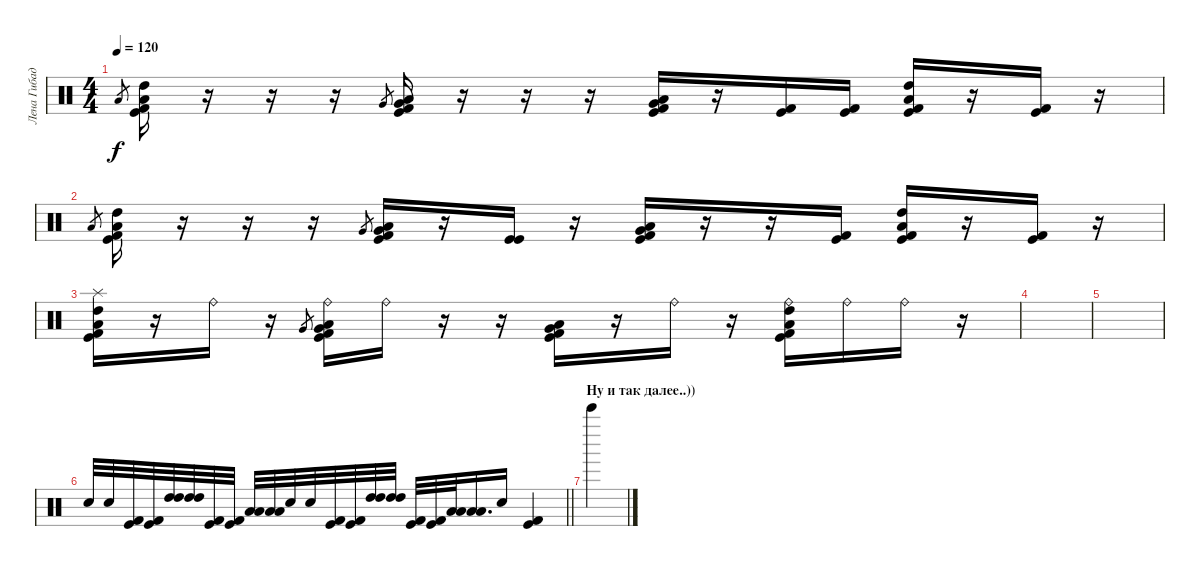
\track ("Лена Гибадулина" "Лена Гибад") {instrument percussion}
\staff {score}
\articulation defaults
\ts (4 4)
\tempo 120
\clef neutral
\ks c "Low Tom (hit)".8{gr dy f}
("Kick (hit)" "Kick (hit) 2" "High Tom (hit)" "Low Tom (hit)").16 r.16 r.16 r.16 "Very Low Tom (hit)".8{gr} ("Kick (hit)" "Kick (hit) 2" "Very Low Tom (hit)" "Low Tom (hit)").16 r.16 r.16 r.16 ("Kick (hit)" "Kick (hit) 2" "Low Floor Tom (hit)" "Very Low Tom (hit)").16 r.16 ("Kick (hit)" "Kick (hit) 2").16 ("Kick (hit)" "Kick (hit) 2").16 ("Kick (hit)" "Kick (hit) 2" "Low Tom (hit)" "High Tom (hit)").16 r.16 ("Kick (hit)" "Kick (hit) 2").16 r.16 |
"Low Tom (hit)".8{gr} ("Kick (hit)" "Kick (hit) 2" "High Tom (hit)" "Low Tom (hit)").16 r.16 r.16 r.16 "Very Low Tom (hit)".8{gr} ("Kick (hit)" "Kick (hit) 2" "Very Low Tom (hit)" "Low Tom (hit)").16 r.16 ("Kick (hit)" "Kick (hit)").16 r.16 ("Kick (hit)" "Kick (hit) 2" "Low Floor Tom (hit)" "Very Low Tom (hit)").16 r.16 r.16 ("Kick (hit) 2" "Kick (hit)").16 ("Kick (hit)" "Kick (hit) 2" "Low Tom (hit)" "High Tom (hit)").16 r.16 ("Kick (hit)" "Kick (hit) 2").16 r.16 |
("Splash (hit)" "Kick (hit)" "Kick (hit) 2" "High Tom (hit)" "Low Tom (hit)").16 r.16 "Ride (bell)".16 r.16 "Very Low Tom (hit)".8{gr} ("Ride (bell)" "Kick (hit)" "Kick (hit) 2" "Very Low Tom (hit)" "Low Tom (hit)").16 "Ride (bell)".16 r.16 r.16 ("Kick (hit)" "Kick (hit) 2" "Low Floor Tom (hit)" "Very Low Tom (hit)").16 r.16 "Ride (bell)".16 r.16 ("Ride (bell)" "Kick (hit)" "Kick (hit) 2" "Low Tom (hit)" "High Tom (hit)").16 "Ride (bell)".16 "Ride (bell)".16 r.16 |
|
|
\barLineRight lightlight "Electric Snare (hit)".32 "Electric Snare (hit)".32
("Kick (hit)" "Kick (hit) 2").32 ("Kick (hit)" "Kick (hit) 2").32 ("High Tom (hit)" "High Tom (hit)").32 ("High Tom (hit)" "High Tom (hit)").32 ("Kick (hit)" "Kick (hit) 2").32 ("Kick (hit)" "Kick (hit) 2").32 ("Low Tom (hit)" "Low Tom (hit)").32 ("Low Tom (hit)" "Low Tom (hit)").32 "Electric Snare (hit)".32 "Electric Snare (hit)".32 ("Kick (hit)" "Kick (hit) 2").32 ("Kick (hit)" "Kick (hit) 2").32 ("High Tom (hit)" "High Tom (hit)").32 ("High Tom (hit)" "High Tom (hit)").32 ("Kick (hit)" "Kick (hit) 2").32 ("Kick (hit)" "Kick (hit) 2").32 ("Low Tom (hit)" "Low Tom (hit)").32 ("Low Tom (hit)" "Low Tom (hit)").16{d} "Electric Snare (hit)".16 ("Kick (hit)" "Kick (hit) 2").4 |
\section ("" "Ну и так далее..))")
"Bell Tree (hit)".4
